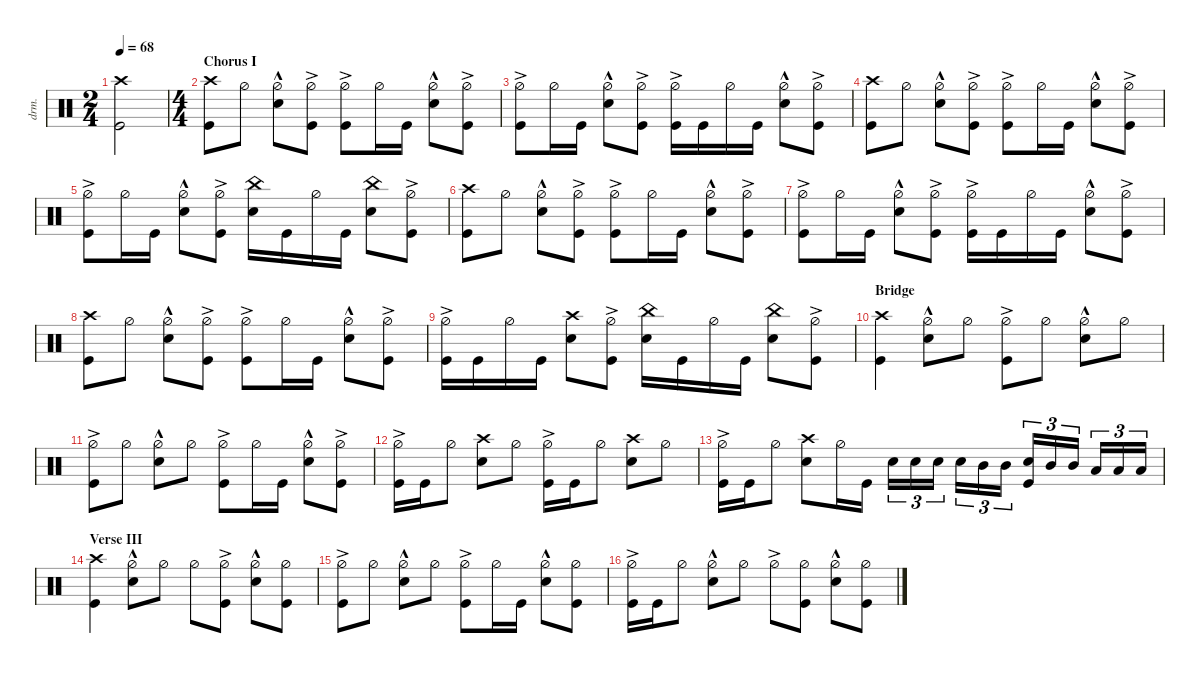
\defaultSystemsLayout 4
\hideDynamics
\bracketExtendMode nobrackets
\otherSystemsTrackNameOrientation horizontal
\track ("Drums" "drm.") {defaultSystemsLayout 4 instrument percussion}
\staff
\articulation defaults
\ts (2 4)
\beaming (8 2 2)
\tempo 68
\clef neutral
\ks c
("Crash high (hit)" "Kick (hit)").2{dy f} |
\ts (4 4)
\beaming (8 2 2 2 2)
\section ("" "Chorus I")
("Crash high (hit)" "Kick (hit)").8 "Hi-Hat (half)".8 ("Hi-Hat (half)"{hac} "Snare (hit) 2").8 ("Hi-Hat (half)"{ac} "Kick (hit)").8 ("Hi-Hat (half)"{ac} "Kick (hit)").8 "Hi-Hat (half)".16 "Kick (hit)".16 ("Hi-Hat (half)"{hac} "Snare (hit) 2").8 ("Hi-Hat (half)"{ac} "Kick (hit)").8 |
("Hi-Hat (half)"{ac} "Kick (hit)").8 "Hi-Hat (half)".16 "Kick (hit)".16 ("Hi-Hat (half)"{hac} "Snare (hit) 2").8 ("Hi-Hat (half)"{ac} "Kick (hit)").8 ("Hi-Hat (half)"{ac} "Kick (hit)").16 "Kick (hit)".16 "Hi-Hat (half)".16 "Kick (hit)".16 ("Hi-Hat (half)"{hac} "Snare (hit) 2").8 ("Hi-Hat (half)"{ac} "Kick (hit)").8 |
("Crash high (hit)" "Kick (hit)").8 "Hi-Hat (half)".8 ("Hi-Hat (half)"{hac} "Snare (hit) 2").8 ("Hi-Hat (half)"{ac} "Kick (hit)").8 ("Hi-Hat (half)"{ac} "Kick (hit)").8 "Hi-Hat (half)".16 "Kick (hit)".16 ("Hi-Hat (half)"{hac} "Snare (hit) 2").8 ("Hi-Hat (half)"{ac} "Kick (hit)").8 |
("Hi-Hat (half)"{ac} "Kick (hit)").8 "Hi-Hat (half)".16 "Kick (hit)".16 ("Hi-Hat (half)"{hac} "Snare (hit) 2").8 ("Hi-Hat (half)"{ac} "Kick (hit)").8 ("Snare (hit) 2" "China (hit)").16 "Kick (hit)".16 "Hi-Hat (half)".16 "Kick (hit)".16 ("Snare (hit) 2" "China (hit)").8 ("Kick (hit)" "Hi-Hat (half)"{ac}).8 |
("Crash high (hit)" "Kick (hit)").8 "Hi-Hat (half)".8 ("Hi-Hat (half)"{hac} "Snare (hit) 2").8 ("Hi-Hat (half)"{ac} "Kick (hit)").8 ("Hi-Hat (half)"{ac} "Kick (hit)").8 "Hi-Hat (half)".16 "Kick (hit)".16 ("Hi-Hat (half)"{hac} "Snare (hit) 2").8 ("Hi-Hat (half)"{ac} "Kick (hit)").8 |
("Hi-Hat (half)"{ac} "Kick (hit)").8 "Hi-Hat (half)".16 "Kick (hit)".16 ("Hi-Hat (half)"{hac} "Snare (hit) 2").8 ("Hi-Hat (half)"{ac} "Kick (hit)").8 ("Hi-Hat (half)"{ac} "Kick (hit)").16 "Kick (hit)".16 "Hi-Hat (half)".16 "Kick (hit)".16 ("Hi-Hat (half)"{hac} "Snare (hit) 2").8 ("Hi-Hat (half)"{ac} "Kick (hit)").8 |
("Crash high (hit)" "Kick (hit)").8 "Hi-Hat (half)".8 ("Hi-Hat (half)"{hac} "Snare (hit) 2").8 ("Hi-Hat (half)"{ac} "Kick (hit)").8 ("Hi-Hat (half)"{ac} "Kick (hit)").8 "Hi-Hat (half)".16 "Kick (hit)".16 ("Hi-Hat (half)"{hac} "Snare (hit) 2").8 ("Hi-Hat (half)"{ac} "Kick (hit)").8 |
("Hi-Hat (half)"{ac} "Kick (hit)").16 "Kick (hit)".16 "Hi-Hat (half)".16 "Kick (hit)".16 ("Snare (hit) 2" "Crash high (hit)").8 ("Hi-Hat (half)"{ac} "Kick (hit)").8 ("Snare (hit) 2" "China (hit)").16 "Kick (hit)".16 "Hi-Hat (half)".16 "Kick (hit)".16 ("Snare (hit) 2" "China (hit)").8 ("Kick (hit)" "Hi-Hat (half)"{ac}).8 |
\section ("" "Bridge")
("Crash high (hit)" "Kick (hit)").4 ("Snare (hit) 2" "Hi-Hat (half)"{hac}).8 "Hi-Hat (half)".8 ("Hi-Hat (half)"{ac} "Kick (hit)").8 "Hi-Hat (half)".8 ("Snare (hit) 2" "Hi-Hat (half)"{hac}).8 "Hi-Hat (half)".8 |
("Kick (hit)" "Hi-Hat (half)"{ac}).8 "Hi-Hat (half)".8 ("Snare (hit) 2" "Hi-Hat (half)"{hac}).8 "Hi-Hat (half)".8 ("Hi-Hat (half)"{ac} "Kick (hit)").8 "Hi-Hat (half)".16 "Kick (hit)".16 ("Snare (hit) 2" "Hi-Hat (half)"{hac}).8 ("Hi-Hat (half)"{ac} "Kick (hit)").8 |
("Kick (hit)" "Hi-Hat (half)"{ac}).16 "Kick (hit)".16 "Hi-Hat (half)".8 ("Snare (hit) 2" "Crash high (hit)").8 "Hi-Hat (half)".8 ("Kick (hit)" "Hi-Hat (half)"{ac}).16 "Kick (hit)".16 "Hi-Hat (half)".8 ("Snare (hit) 2" "Crash high (hit)").8 "Hi-Hat (half)".8 |
("Kick (hit)" "Hi-Hat (half)"{ac}).16 "Kick (hit)".16 "Hi-Hat (half)".8 ("Snare (hit) 2" "Crash high (hit)").8 "Hi-Hat (half)".16 "Kick (hit)".16 "Snare (hit) 2".16{tu (3 2)} "Snare (hit) 2".16{tu (3 2)} "Snare (hit) 2".16{tu (3 2)} "Snare (hit) 2".16{tu (3 2)} "Mid Tom (hit)".16{tu (3 2) dy ff} "Mid Tom (hit)".16{tu (3 2)} ("Snare (hit) 2" "Kick (hit)").16{tu (3 2) dy f} "Mid Tom (hit)".16{tu (3 2) dy ff} "Mid Tom (hit)".16{tu (3 2)} "Low Tom (hit)".16{tu (3 2)} "Low Tom (hit)".16{tu (3 2)} "Low Tom (hit)".16{tu (3 2)} |
\section ("" "Verse III")
("Crash high (hit)" "Kick (hit)").4{dy f} ("Snare (hit) 2" "Hi-Hat (half)"{hac}).8 "Hi-Hat (half)".8 "Hi-Hat (half)".8 ("Hi-Hat (half)"{ac} "Kick (hit)").8 ("Snare (hit) 2" "Hi-Hat (half)"{hac}).8 ("Hi-Hat (half)" "Kick (hit)").8 |
("Kick (hit)" "Hi-Hat (half)"{ac}).8 "Hi-Hat (half)".8 ("Snare (hit) 2" "Hi-Hat (half)"{hac}).8 "Hi-Hat (half)".8 ("Hi-Hat (half)"{ac} "Kick (hit)").8 "Hi-Hat (half)".16 "Kick (hit)".16 ("Snare (hit) 2" "Hi-Hat (half)"{hac}).8 ("Hi-Hat (half)" "Kick (hit)").8 |
("Kick (hit)" "Hi-Hat (half)"{ac}).16 "Kick (hit)".16 "Hi-Hat (half)".8 ("Snare (hit) 2" "Hi-Hat (half)"{hac}).8 "Hi-Hat (half)".8 "Hi-Hat (half)"{ac}.8 ("Hi-Hat (half)" "Kick (hit)").8 ("Snare (hit) 2" "Hi-Hat (half)"{hac}).8 ("Hi-Hat (half)" "Kick (hit)").8
